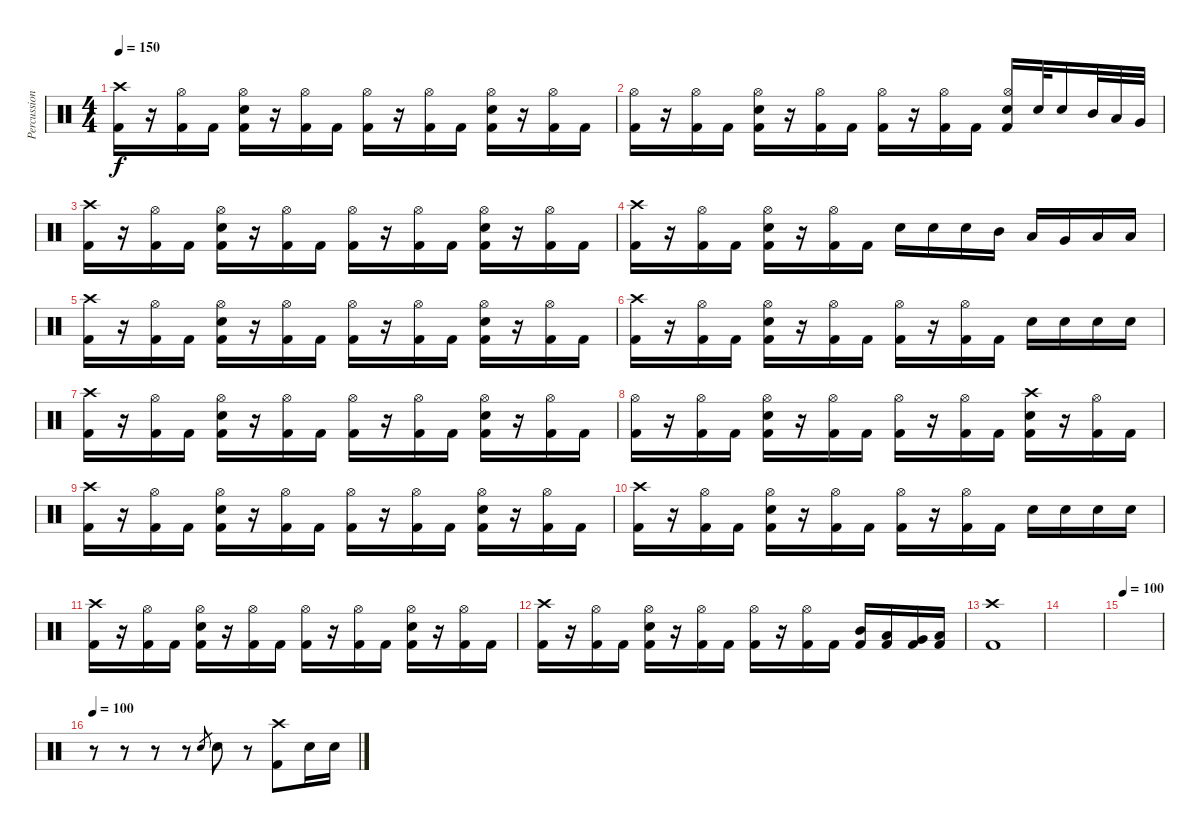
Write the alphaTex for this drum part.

\track ("Percussion" "Percussion") {instrument percussion}
\staff {score}
\articulation defaults
\ts (4 4)
\tempo 150
\clef neutral
\ks c
("Crash high (hit)" "Kick (hit) 2").16{dy f} r.16 ("Hi-Hat (open)" "Kick (hit) 2").16 "Kick (hit) 2".16 ("Hi-Hat (open)" "Snare (hit) 2" "Kick (hit) 2").16 r.16 ("Hi-Hat (open)" "Kick (hit) 2").16 "Kick (hit) 2".16 ("Hi-Hat (open)" "Kick (hit) 2").16 r.16 ("Hi-Hat (open)" "Kick (hit) 2").16 "Kick (hit) 2".16 ("Hi-Hat (open)" "Snare (hit) 2" "Kick (hit) 2").16 r.16 ("Hi-Hat (open)" "Kick (hit) 2").16 "Kick (hit) 2".16 |
("Hi-Hat (open)" "Kick (hit) 2").16 r.16 ("Hi-Hat (open)" "Kick (hit) 2").16 "Kick (hit) 2".16 ("Hi-Hat (open)" "Snare (hit) 2" "Kick (hit) 2").16 r.16 ("Hi-Hat (open)" "Kick (hit) 2").16 "Kick (hit) 2".16 ("Hi-Hat (open)" "Kick (hit) 2").16 r.16 ("Hi-Hat (open)" "Kick (hit) 2").16 "Kick (hit) 2".16 ("Hi-Hat (open)" "Snare (hit) 2" "Kick (hit) 2").16 "Snare (hit) 2".32 "Snare (hit) 2".16 "Mid Tom (hit)".32 "Low Tom (hit)".32 "Very Low Tom (hit)".32 |
("Crash high (hit)" "Kick (hit) 2").16 r.16 ("Hi-Hat (open)" "Kick (hit) 2").16 "Kick (hit) 2".16 ("Hi-Hat (open)" "Snare (hit) 2" "Kick (hit) 2").16 r.16 ("Hi-Hat (open)" "Kick (hit) 2").16 "Kick (hit) 2".16 ("Hi-Hat (open)" "Kick (hit) 2").16 r.16 ("Hi-Hat (open)" "Kick (hit) 2").16 "Kick (hit) 2".16 ("Hi-Hat (open)" "Snare (hit) 2" "Kick (hit) 2").16 r.16 ("Hi-Hat (open)" "Kick (hit) 2").16 "Kick (hit) 2".16 |
("Crash high (hit)" "Kick (hit) 2").16 r.16 ("Hi-Hat (open)" "Kick (hit) 2").16 "Kick (hit) 2".16 ("Hi-Hat (open)" "Snare (hit) 2" "Kick (hit) 2").16 r.16 ("Hi-Hat (open)" "Kick (hit) 2").16 "Kick (hit) 2".16 "Snare (hit) 2".16 "Snare (hit) 2".16 "Snare (hit) 2".16 "Mid Tom (hit)".16 "Low Tom (hit)".16 "Very Low Tom (hit)".16 "Low Floor Tom (hit)".16 "Low Floor Tom (hit)".16 |
("Crash high (hit)" "Kick (hit) 2").16 r.16 ("Hi-Hat (open)" "Kick (hit) 2").16 "Kick (hit) 2".16 ("Hi-Hat (open)" "Snare (hit) 2" "Kick (hit) 2").16 r.16 ("Hi-Hat (open)" "Kick (hit) 2").16 "Kick (hit) 2".16 ("Hi-Hat (open)" "Kick (hit) 2").16 r.16 ("Hi-Hat (open)" "Kick (hit) 2").16 "Kick (hit) 2".16 ("Hi-Hat (open)" "Snare (hit) 2" "Kick (hit) 2").16 r.16 ("Hi-Hat (open)" "Kick (hit) 2").16 "Kick (hit) 2".16 |
("Crash high (hit)" "Kick (hit) 2").16 r.16 ("Hi-Hat (open)" "Kick (hit) 2").16 "Kick (hit) 2".16 ("Hi-Hat (open)" "Snare (hit) 2" "Kick (hit) 2").16 r.16 ("Hi-Hat (open)" "Kick (hit) 2").16 "Kick (hit) 2".16 ("Hi-Hat (open)" "Kick (hit) 2").16 r.16 ("Hi-Hat (open)" "Kick (hit) 2").16 "Kick (hit) 2".16 "Snare (hit) 2".16 "Snare (hit) 2".16 "Snare (hit) 2".16 "Snare (hit) 2".16 |
("Crash high (hit)" "Kick (hit) 2").16 r.16 ("Hi-Hat (open)" "Kick (hit) 2").16 "Kick (hit) 2".16 ("Hi-Hat (open)" "Snare (hit) 2" "Kick (hit) 2").16 r.16 ("Hi-Hat (open)" "Kick (hit) 2").16 "Kick (hit) 2".16 ("Hi-Hat (open)" "Kick (hit) 2").16 r.16 ("Hi-Hat (open)" "Kick (hit) 2").16 "Kick (hit) 2".16 ("Hi-Hat (open)" "Snare (hit) 2" "Kick (hit) 2").16 r.16 ("Hi-Hat (open)" "Kick (hit) 2").16 "Kick (hit) 2".16 |
("Hi-Hat (open)" "Kick (hit) 2").16 r.16 ("Hi-Hat (open)" "Kick (hit) 2").16 "Kick (hit) 2".16 ("Hi-Hat (open)" "Snare (hit) 2" "Kick (hit) 2").16 r.16 ("Hi-Hat (open)" "Kick (hit) 2").16 "Kick (hit) 2".16 ("Hi-Hat (open)" "Kick (hit) 2").16 r.16 ("Hi-Hat (open)" "Kick (hit) 2").16 "Kick (hit) 2".16 ("Crash high (hit)" "Snare (hit) 2" "Kick (hit) 2").16 r.16 ("Hi-Hat (open)" "Kick (hit) 2").16 "Kick (hit) 2".16 |
("Crash high (hit)" "Kick (hit) 2").16 r.16 ("Hi-Hat (open)" "Kick (hit) 2").16 "Kick (hit) 2".16 ("Hi-Hat (open)" "Snare (hit) 2" "Kick (hit) 2").16 r.16 ("Hi-Hat (open)" "Kick (hit) 2").16 "Kick (hit) 2".16 ("Hi-Hat (open)" "Kick (hit) 2").16 r.16 ("Hi-Hat (open)" "Kick (hit) 2").16 "Kick (hit) 2".16 ("Hi-Hat (open)" "Snare (hit) 2" "Kick (hit) 2").16 r.16 ("Hi-Hat (open)" "Kick (hit) 2").16 "Kick (hit) 2".16 |
("Crash high (hit)" "Kick (hit) 2").16 r.16 ("Hi-Hat (open)" "Kick (hit) 2").16 "Kick (hit) 2".16 ("Hi-Hat (open)" "Snare (hit) 2" "Kick (hit) 2").16 r.16 ("Hi-Hat (open)" "Kick (hit) 2").16 "Kick (hit) 2".16 ("Hi-Hat (open)" "Kick (hit) 2").16 r.16 ("Hi-Hat (open)" "Kick (hit) 2").16 "Kick (hit) 2".16 "Snare (hit) 2".16 "Snare (hit) 2".16 "Snare (hit) 2".16 "Snare (hit) 2".16 |
("Crash high (hit)" "Kick (hit) 2").16 r.16 ("Hi-Hat (open)" "Kick (hit) 2").16 "Kick (hit) 2".16 ("Hi-Hat (open)" "Snare (hit) 2" "Kick (hit) 2").16 r.16 ("Hi-Hat (open)" "Kick (hit) 2").16 "Kick (hit) 2".16 ("Hi-Hat (open)" "Kick (hit) 2").16 r.16 ("Hi-Hat (open)" "Kick (hit) 2").16 "Kick (hit) 2".16 ("Hi-Hat (open)" "Snare (hit) 2" "Kick (hit) 2").16 r.16 ("Hi-Hat (open)" "Kick (hit) 2").16 "Kick (hit) 2".16 |
("Crash high (hit)" "Kick (hit) 2").16 r.16 ("Hi-Hat (open)" "Kick (hit) 2").16 "Kick (hit) 2".16 ("Hi-Hat (open)" "Snare (hit) 2" "Kick (hit) 2").16 r.16 ("Hi-Hat (open)" "Kick (hit) 2").16 "Kick (hit) 2".16 ("Hi-Hat (open)" "Kick (hit) 2").16 r.16 ("Hi-Hat (open)" "Kick (hit) 2").16 "Kick (hit) 2".16 ("Mid Tom (hit)" "Kick (hit) 2").16 ("Low Tom (hit)" "Kick (hit) 2").16 ("Very Low Tom (hit)" "Kick (hit) 2").16 ("Low Floor Tom (hit)" "Kick (hit) 2").16 |
("Crash high (hit)" "Kick (hit) 2").1 |
|
\tempo 100
|
\tempo 100
r.8 r.8 r.8 r.8 "Snare (hit) 2".8{gr} "Snare (hit) 2".8 r.8 ("Crash high (hit)" "Kick (hit) 2").8 "Snare (hit) 2".16 "Snare (hit) 2".16
